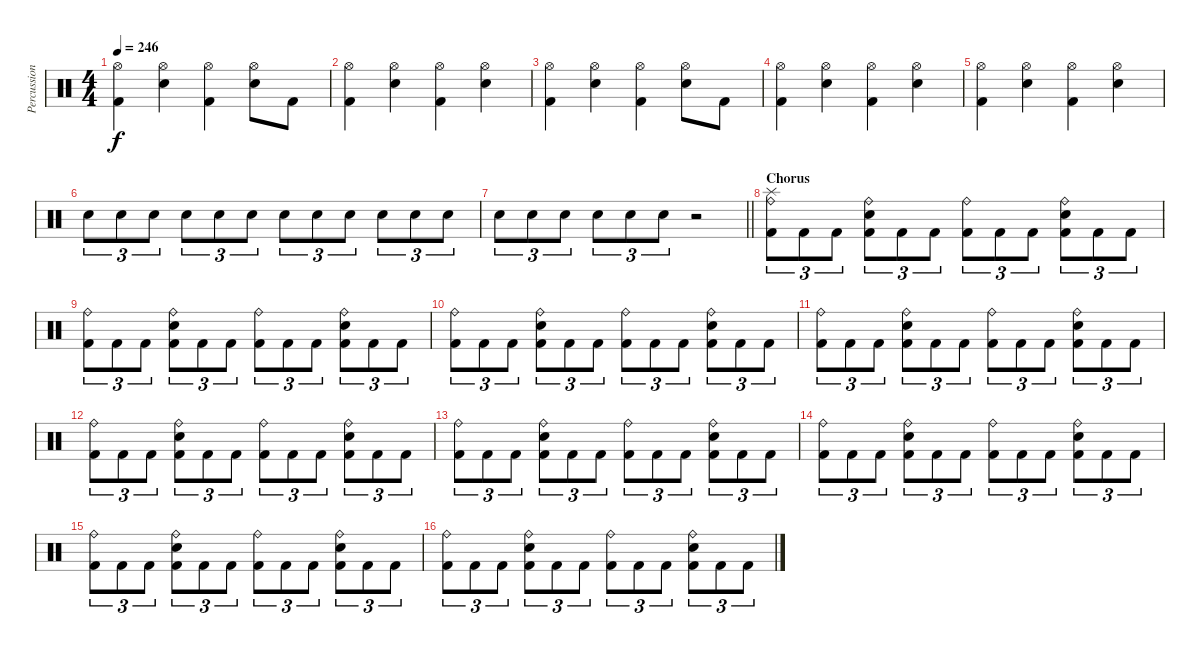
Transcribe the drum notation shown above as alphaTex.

\track ("Percussions" "Percussion") {instrument percussion}
\staff {score}
\articulation defaults
\ts (4 4)
\tempo 246
\clef neutral
\ks c
("Hi-Hat (open)" "Kick (hit) 2").4{dy f} ("Hi-Hat (open)" "Electric Snare (hit)").4 ("Hi-Hat (open)" "Kick (hit) 2").4 ("Hi-Hat (open)" "Electric Snare (hit)").8 "Kick (hit) 2".8 |
("Hi-Hat (open)" "Kick (hit) 2").4 ("Hi-Hat (open)" "Electric Snare (hit)").4 ("Hi-Hat (open)" "Kick (hit) 2").4 ("Hi-Hat (open)" "Electric Snare (hit)").4 |
("Hi-Hat (open)" "Kick (hit) 2").4 ("Hi-Hat (open)" "Electric Snare (hit)").4 ("Hi-Hat (open)" "Kick (hit) 2").4 ("Hi-Hat (open)" "Electric Snare (hit)").8 "Kick (hit) 2".8 |
("Hi-Hat (open)" "Kick (hit) 2").4 ("Hi-Hat (open)" "Electric Snare (hit)").4 ("Hi-Hat (open)" "Kick (hit) 2").4 ("Hi-Hat (open)" "Electric Snare (hit)").4 |
("Hi-Hat (open)" "Kick (hit) 2").4 ("Hi-Hat (open)" "Electric Snare (hit)").4 ("Hi-Hat (open)" "Kick (hit) 2").4 ("Hi-Hat (open)" "Electric Snare (hit)").4 |
"Electric Snare (hit)".8{tu (3 2)} "Electric Snare (hit)".8{tu (3 2)} "Electric Snare (hit)".8{tu (3 2)} "Electric Snare (hit)".8{tu (3 2)} "Electric Snare (hit)".8{tu (3 2)} "Electric Snare (hit)".8{tu (3 2)} "Electric Snare (hit)".8{tu (3 2)} "Electric Snare (hit)".8{tu (3 2)} "Electric Snare (hit)".8{tu (3 2)} "Electric Snare (hit)".8{tu (3 2)} "Electric Snare (hit)".8{tu (3 2)} "Electric Snare (hit)".8{tu (3 2)} |
\barLineRight lightlight "Electric Snare (hit)".8{tu (3 2)} "Electric Snare (hit)".8{tu (3 2)} "Electric Snare (hit)".8{tu (3 2)} "Electric Snare (hit)".8{tu (3 2)} "Electric Snare (hit)".8{tu (3 2)} "Electric Snare (hit)".8{tu (3 2)}
r.2 |
\section ("" "Chorus")
("Splash (hit)" "Ride (bell)" "Kick (hit) 2").8{tu (3 2)} "Kick (hit) 2".8{tu (3 2)} "Kick (hit) 2".8{tu (3 2)} ("Ride (bell)" "Electric Snare (hit)" "Kick (hit) 2").8{tu (3 2)} "Kick (hit) 2".8{tu (3 2)} "Kick (hit) 2".8{tu (3 2)} ("Ride (bell)" "Kick (hit) 2").8{tu (3 2)} "Kick (hit) 2".8{tu (3 2)} "Kick (hit) 2".8{tu (3 2)} ("Ride (bell)" "Electric Snare (hit)" "Kick (hit) 2").8{tu (3 2)} "Kick (hit) 2".8{tu (3 2)} "Kick (hit) 2".8{tu (3 2)} |
("Ride (bell)" "Kick (hit) 2").8{tu (3 2)} "Kick (hit) 2".8{tu (3 2)} "Kick (hit) 2".8{tu (3 2)} ("Ride (bell)" "Electric Snare (hit)" "Kick (hit) 2").8{tu (3 2)} "Kick (hit) 2".8{tu (3 2)} "Kick (hit) 2".8{tu (3 2)} ("Ride (bell)" "Kick (hit) 2").8{tu (3 2)} "Kick (hit) 2".8{tu (3 2)} "Kick (hit) 2".8{tu (3 2)} ("Ride (bell)" "Electric Snare (hit)" "Kick (hit) 2").8{tu (3 2)} "Kick (hit) 2".8{tu (3 2)} "Kick (hit) 2".8{tu (3 2)} |
("Ride (bell)" "Kick (hit) 2").8{tu (3 2)} "Kick (hit) 2".8{tu (3 2)} "Kick (hit) 2".8{tu (3 2)} ("Ride (bell)" "Electric Snare (hit)" "Kick (hit) 2").8{tu (3 2)} "Kick (hit) 2".8{tu (3 2)} "Kick (hit) 2".8{tu (3 2)} ("Ride (bell)" "Kick (hit) 2").8{tu (3 2)} "Kick (hit) 2".8{tu (3 2)} "Kick (hit) 2".8{tu (3 2)} ("Ride (bell)" "Electric Snare (hit)" "Kick (hit) 2").8{tu (3 2)} "Kick (hit) 2".8{tu (3 2)} "Kick (hit) 2".8{tu (3 2)} |
("Ride (bell)" "Kick (hit) 2").8{tu (3 2)} "Kick (hit) 2".8{tu (3 2)} "Kick (hit) 2".8{tu (3 2)} ("Ride (bell)" "Electric Snare (hit)" "Kick (hit) 2").8{tu (3 2)} "Kick (hit) 2".8{tu (3 2)} "Kick (hit) 2".8{tu (3 2)} ("Ride (bell)" "Kick (hit) 2").8{tu (3 2)} "Kick (hit) 2".8{tu (3 2)} "Kick (hit) 2".8{tu (3 2)} ("Ride (bell)" "Electric Snare (hit)" "Kick (hit) 2").8{tu (3 2)} "Kick (hit) 2".8{tu (3 2)} "Kick (hit) 2".8{tu (3 2)} |
("Ride (bell)" "Kick (hit) 2").8{tu (3 2)} "Kick (hit) 2".8{tu (3 2)} "Kick (hit) 2".8{tu (3 2)} ("Ride (bell)" "Electric Snare (hit)" "Kick (hit) 2").8{tu (3 2)} "Kick (hit) 2".8{tu (3 2)} "Kick (hit) 2".8{tu (3 2)} ("Ride (bell)" "Kick (hit) 2").8{tu (3 2)} "Kick (hit) 2".8{tu (3 2)} "Kick (hit) 2".8{tu (3 2)} ("Ride (bell)" "Electric Snare (hit)" "Kick (hit) 2").8{tu (3 2)} "Kick (hit) 2".8{tu (3 2)} "Kick (hit) 2".8{tu (3 2)} |
("Ride (bell)" "Kick (hit) 2").8{tu (3 2)} "Kick (hit) 2".8{tu (3 2)} "Kick (hit) 2".8{tu (3 2)} ("Ride (bell)" "Electric Snare (hit)" "Kick (hit) 2").8{tu (3 2)} "Kick (hit) 2".8{tu (3 2)} "Kick (hit) 2".8{tu (3 2)} ("Ride (bell)" "Kick (hit) 2").8{tu (3 2)} "Kick (hit) 2".8{tu (3 2)} "Kick (hit) 2".8{tu (3 2)} ("Ride (bell)" "Electric Snare (hit)" "Kick (hit) 2").8{tu (3 2)} "Kick (hit) 2".8{tu (3 2)} "Kick (hit) 2".8{tu (3 2)} |
("Ride (bell)" "Kick (hit) 2").8{tu (3 2)} "Kick (hit) 2".8{tu (3 2)} "Kick (hit) 2".8{tu (3 2)} ("Ride (bell)" "Electric Snare (hit)" "Kick (hit) 2").8{tu (3 2)} "Kick (hit) 2".8{tu (3 2)} "Kick (hit) 2".8{tu (3 2)} ("Ride (bell)" "Kick (hit) 2").8{tu (3 2)} "Kick (hit) 2".8{tu (3 2)} "Kick (hit) 2".8{tu (3 2)} ("Ride (bell)" "Electric Snare (hit)" "Kick (hit) 2").8{tu (3 2)} "Kick (hit) 2".8{tu (3 2)} "Kick (hit) 2".8{tu (3 2)} |
("Ride (bell)" "Kick (hit) 2").8{tu (3 2)} "Kick (hit) 2".8{tu (3 2)} "Kick (hit) 2".8{tu (3 2)} ("Ride (bell)" "Electric Snare (hit)" "Kick (hit) 2").8{tu (3 2)} "Kick (hit) 2".8{tu (3 2)} "Kick (hit) 2".8{tu (3 2)} ("Ride (bell)" "Kick (hit) 2").8{tu (3 2)} "Kick (hit) 2".8{tu (3 2)} "Kick (hit) 2".8{tu (3 2)} ("Ride (bell)" "Electric Snare (hit)" "Kick (hit) 2").8{tu (3 2)} "Kick (hit) 2".8{tu (3 2)} "Kick (hit) 2".8{tu (3 2)} |
("Ride (bell)" "Kick (hit) 2").8{tu (3 2)} "Kick (hit) 2".8{tu (3 2)} "Kick (hit) 2".8{tu (3 2)} ("Ride (bell)" "Electric Snare (hit)" "Kick (hit) 2").8{tu (3 2)} "Kick (hit) 2".8{tu (3 2)} "Kick (hit) 2".8{tu (3 2)} ("Ride (bell)" "Kick (hit) 2").8{tu (3 2)} "Kick (hit) 2".8{tu (3 2)} "Kick (hit) 2".8{tu (3 2)} ("Ride (bell)" "Electric Snare (hit)" "Kick (hit) 2").8{tu (3 2)} "Kick (hit) 2".8{tu (3 2)} "Kick (hit) 2".8{tu (3 2)}
